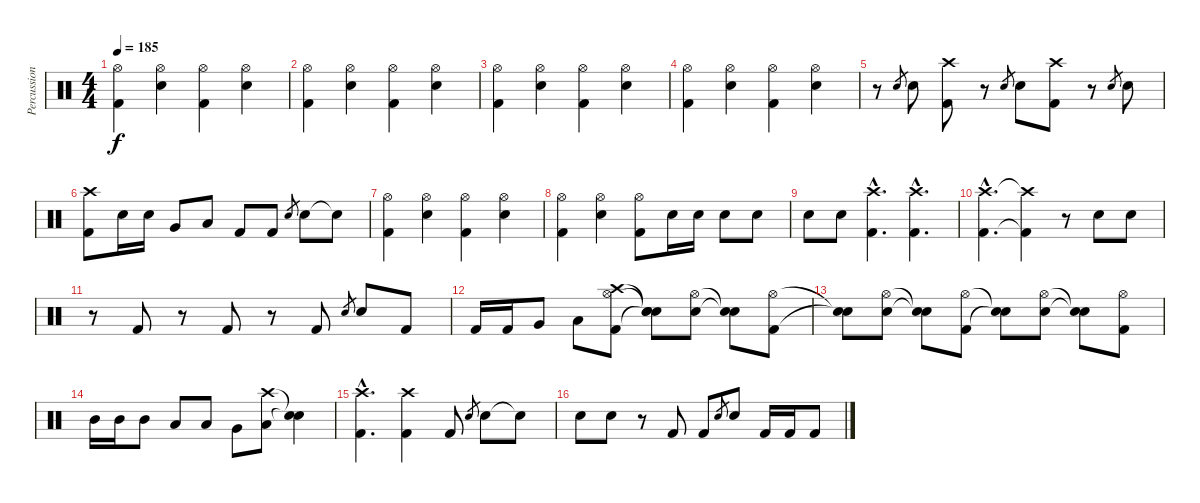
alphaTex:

\track ("Percussion" "Percussion") {instrument percussion}
\staff {score}
\articulation defaults
\ts (4 4)
\tempo 185
\clef neutral
\ks c
("Hi-Hat (open)" "Kick (hit) 2").4{dy f} ("Hi-Hat (open)" "Electric Snare (hit)").4 ("Hi-Hat (open)" "Kick (hit) 2").4 ("Hi-Hat (open)" "Electric Snare (hit)").4 |
("Hi-Hat (open)" "Kick (hit) 2").4 ("Hi-Hat (open)" "Electric Snare (hit)").4 ("Hi-Hat (open)" "Kick (hit) 2").4 ("Hi-Hat (open)" "Electric Snare (hit)").4 |
("Hi-Hat (open)" "Kick (hit) 2").4 ("Hi-Hat (open)" "Electric Snare (hit)").4 ("Hi-Hat (open)" "Kick (hit) 2").4 ("Hi-Hat (open)" "Electric Snare (hit)").4 |
("Hi-Hat (open)" "Kick (hit) 2").4 ("Hi-Hat (open)" "Electric Snare (hit)").4 ("Hi-Hat (open)" "Kick (hit) 2").4 ("Hi-Hat (open)" "Electric Snare (hit)").4 |
r.8 "Electric Snare (hit)".8{gr} "Electric Snare (hit)".8 ("Crash high (hit)" "Kick (hit) 2").8 r.8 "Electric Snare (hit)".8{gr} "Electric Snare (hit)".8 ("Crash high (hit)" "Kick (hit) 2").8 r.8 "Electric Snare (hit)".8{gr} "Electric Snare (hit)".8 |
("Crash high (hit)" "Kick (hit) 2").8 "Electric Snare (hit)".16 "Electric Snare (hit)".16 "Very Low Tom (hit)".8 "Low Floor Tom (hit)".8 "Kick (hit) 2".8 "Kick (hit) 2".8 "Electric Snare (hit)".8{gr} "Electric Snare (hit)".8 "Snare (hit)"{t}.8 |
("Hi-Hat (open)" "Kick (hit) 2").4 ("Hi-Hat (open)" "Electric Snare (hit)").4 ("Hi-Hat (open)" "Kick (hit) 2").4 ("Hi-Hat (open)" "Electric Snare (hit)").4 |
("Hi-Hat (open)" "Kick (hit) 2").4 ("Hi-Hat (open)" "Electric Snare (hit)").4 ("Hi-Hat (open)" "Kick (hit) 2").8 "Electric Snare (hit)".16 "Electric Snare (hit)".16 "Electric Snare (hit)".8 "Electric Snare (hit)".8 |
"Electric Snare (hit)".8 "Electric Snare (hit)".8 ("Crash high (hit)"{hac} "Kick (hit) 2"{hac}).4{d} ("Crash high (hit)"{hac} "Kick (hit) 2"{hac}).4{d} |
("Crash high (hit)"{hac} "Kick (hit) 2"{hac}).4{d} ("Crash high (hit)"{t} "Kick (hit) 2"{t}).4 r.8 "Electric Snare (hit)".8 "Electric Snare (hit)".8 |
r.8 "Kick (hit) 2".8 r.8 "Kick (hit) 2".8 r.8 "Kick (hit) 2".8 "Electric Snare (hit)".8{gr} "Electric Snare (hit)".8 "Kick (hit) 2".8 |
"Kick (hit) 2".16 "Kick (hit) 2".16 "Very Low Tom (hit)".8 "Low Floor Tom (hit)".8 ("Hi-Hat (open)" "Crash high (hit)" "Kick (hit) 2").8 ("Snare (hit)"{t} "Snare (hit)"{t} "Snare (hit)"{t}).8 ("Hi-Hat (open)" "Electric Snare (hit)").8 ("Snare (hit)"{t} "Snare (hit)"{t}).8 ("Hi-Hat (open)" "Kick (hit) 2").8 |
("Snare (hit)"{t} "Snare (hit)"{t}).8 ("Hi-Hat (open)" "Electric Snare (hit)").8 ("Snare (hit)"{t} "Snare (hit)"{t}).8 ("Hi-Hat (open)" "Kick (hit) 2").8 ("Snare (hit)"{t} "Snare (hit)"{t}).8 ("Hi-Hat (open)" "Electric Snare (hit)").8 ("Snare (hit)"{t} "Snare (hit)"{t}).8 ("Hi-Hat (open)" "Kick (hit) 2").8 |
"Mid Tom (hit)".16 "Mid Tom (hit)".16 "Mid Tom (hit)".8 "Low Tom (hit)".8 "Low Tom (hit)".8 "Very Low Tom (hit)".8 ("Crash high (hit)" "Low Floor Tom (hit)").8 ("Snare (hit)"{t} "Snare (hit)"{t}).4 |
("Crash high (hit)"{hac} "Kick (hit) 2"{hac}).4{d} ("Crash high (hit)" "Kick (hit) 2").4 "Kick (hit) 2".8 "Electric Snare (hit)".8{gr} "Electric Snare (hit)".8 "Electric Snare (hit)"{t}.8 |
"Electric Snare (hit)".8 "Electric Snare (hit)".8 r.8 "Kick (hit) 2".8 "Kick (hit) 2".8 "Electric Snare (hit)".8{gr} "Electric Snare (hit)".8 "Kick (hit) 2".16 "Kick (hit) 2".16 "Kick (hit) 2".8
